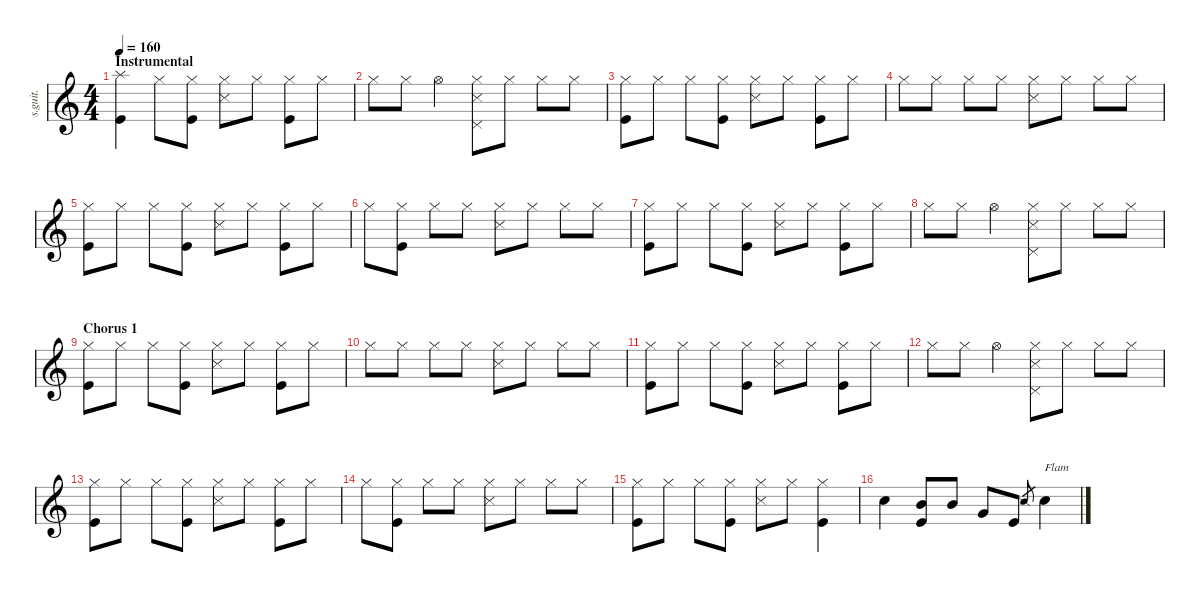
\defaultSystemsLayout 4
\hideDynamics
\bracketExtendMode nobrackets
\track ("John Dolmayan" "s.guit.") {instrument percussion}
\staff {score}
\articulation defaults
\ts (4 4)
\section ("" "Instrumental")
\tempo 160
\clef g2
\ks c
("Splash (hit)" "Kick (hit)").4{lyrics (0 "") lyrics (1 "") lyrics (2 "") lyrics (3 "") lyrics (4 "") dy f} "Hi-Hat (closed)".8{lyrics (0 "") lyrics (1 "") lyrics (2 "") lyrics (3 "") lyrics (4 "")} ("Hi-Hat (closed)" "Kick (hit)").8{lyrics (0 "") lyrics (1 "") lyrics (2 "") lyrics (3 "") lyrics (4 "")} ("Hi-Hat (closed)" "Snare (side stick) 3").8{lyrics (0 "") lyrics (1 "") lyrics (2 "") lyrics (3 "") lyrics (4 "")} "Hi-Hat (closed)".8{lyrics (0 "") lyrics (1 "") lyrics (2 "") lyrics (3 "") lyrics (4 "")} ("Hi-Hat (closed)" "Kick (hit)").8{lyrics (0 "") lyrics (1 "") lyrics (2 "") lyrics (3 "") lyrics (4 "")} "Hi-Hat (closed)".8{lyrics (0 "") lyrics (1 "") lyrics (2 "") lyrics (3 "") lyrics (4 "")} |
"Hi-Hat (closed)".8{lyrics (0 "") lyrics (1 "") lyrics (2 "") lyrics (3 "") lyrics (4 "")} "Hi-Hat (closed)".8{lyrics (0 "") lyrics (1 "") lyrics (2 "") lyrics (3 "") lyrics (4 "")} "Hi-Hat (open)".4{lyrics (0 "") lyrics (1 "") lyrics (2 "") lyrics (3 "") lyrics (4 "")} ("Hi-Hat (closed)" "Pedal Hi-Hat (hit)" "Snare (side stick) 3").8{lyrics (0 "") lyrics (1 "") lyrics (2 "") lyrics (3 "") lyrics (4 "")} "Hi-Hat (closed)".8{lyrics (0 "") lyrics (1 "") lyrics (2 "") lyrics (3 "") lyrics (4 "")} "Hi-Hat (closed)".8{lyrics (0 "") lyrics (1 "") lyrics (2 "") lyrics (3 "") lyrics (4 "")} "Hi-Hat (closed)".8{lyrics (0 "") lyrics (1 "") lyrics (2 "") lyrics (3 "") lyrics (4 "")} |
("Hi-Hat (closed)" "Kick (hit)").8{lyrics (0 "") lyrics (1 "") lyrics (2 "") lyrics (3 "") lyrics (4 "")} "Hi-Hat (closed)".8{lyrics (0 "") lyrics (1 "") lyrics (2 "") lyrics (3 "") lyrics (4 "")} "Hi-Hat (closed)".8{lyrics (0 "") lyrics (1 "") lyrics (2 "") lyrics (3 "") lyrics (4 "")} ("Hi-Hat (closed)" "Kick (hit)").8{lyrics (0 "") lyrics (1 "") lyrics (2 "") lyrics (3 "") lyrics (4 "")} ("Hi-Hat (closed)" "Snare (side stick) 3").8{lyrics (0 "") lyrics (1 "") lyrics (2 "") lyrics (3 "") lyrics (4 "")} "Hi-Hat (closed)".8{lyrics (0 "") lyrics (1 "") lyrics (2 "") lyrics (3 "") lyrics (4 "")} ("Hi-Hat (closed)" "Kick (hit)").8{lyrics (0 "") lyrics (1 "") lyrics (2 "") lyrics (3 "") lyrics (4 "")} "Hi-Hat (closed)".8{lyrics (0 "") lyrics (1 "") lyrics (2 "") lyrics (3 "") lyrics (4 "")} |
"Hi-Hat (closed)".8{lyrics (0 "") lyrics (1 "") lyrics (2 "") lyrics (3 "") lyrics (4 "")} "Hi-Hat (closed)".8{lyrics (0 "") lyrics (1 "") lyrics (2 "") lyrics (3 "") lyrics (4 "")} "Hi-Hat (closed)".8{lyrics (0 "") lyrics (1 "") lyrics (2 "") lyrics (3 "") lyrics (4 "")} "Hi-Hat (closed)".8{lyrics (0 "") lyrics (1 "") lyrics (2 "") lyrics (3 "") lyrics (4 "")} ("Hi-Hat (closed)" "Snare (side stick) 3").8{lyrics (0 "") lyrics (1 "") lyrics (2 "") lyrics (3 "") lyrics (4 "")} "Hi-Hat (closed)".8{lyrics (0 "") lyrics (1 "") lyrics (2 "") lyrics (3 "") lyrics (4 "")} "Hi-Hat (closed)".8{lyrics (0 "") lyrics (1 "") lyrics (2 "") lyrics (3 "") lyrics (4 "")} "Hi-Hat (closed)".8{lyrics (0 "") lyrics (1 "") lyrics (2 "") lyrics (3 "") lyrics (4 "")} |
("Hi-Hat (closed)" "Kick (hit)").8{lyrics (0 "") lyrics (1 "") lyrics (2 "") lyrics (3 "") lyrics (4 "")} "Hi-Hat (closed)".8{lyrics (0 "") lyrics (1 "") lyrics (2 "") lyrics (3 "") lyrics (4 "")} "Hi-Hat (closed)".8{lyrics (0 "") lyrics (1 "") lyrics (2 "") lyrics (3 "") lyrics (4 "")} ("Hi-Hat (closed)" "Kick (hit)").8{lyrics (0 "") lyrics (1 "") lyrics (2 "") lyrics (3 "") lyrics (4 "")} ("Hi-Hat (closed)" "Snare (side stick) 3").8{lyrics (0 "") lyrics (1 "") lyrics (2 "") lyrics (3 "") lyrics (4 "")} "Hi-Hat (closed)".8{lyrics (0 "") lyrics (1 "") lyrics (2 "") lyrics (3 "") lyrics (4 "")} ("Hi-Hat (closed)" "Kick (hit)").8{lyrics (0 "") lyrics (1 "") lyrics (2 "") lyrics (3 "") lyrics (4 "")} "Hi-Hat (closed)".8{lyrics (0 "") lyrics (1 "") lyrics (2 "") lyrics (3 "") lyrics (4 "")} |
"Hi-Hat (closed)".8{lyrics (0 "") lyrics (1 "") lyrics (2 "") lyrics (3 "") lyrics (4 "")} ("Hi-Hat (closed)" "Kick (hit)").8{lyrics (0 "") lyrics (1 "") lyrics (2 "") lyrics (3 "") lyrics (4 "")} "Hi-Hat (closed)".8{lyrics (0 "") lyrics (1 "") lyrics (2 "") lyrics (3 "") lyrics (4 "")} "Hi-Hat (closed)".8{lyrics (0 "") lyrics (1 "") lyrics (2 "") lyrics (3 "") lyrics (4 "")} ("Hi-Hat (closed)" "Snare (side stick) 3").8{lyrics (0 "") lyrics (1 "") lyrics (2 "") lyrics (3 "") lyrics (4 "")} "Hi-Hat (closed)".8{lyrics (0 "") lyrics (1 "") lyrics (2 "") lyrics (3 "") lyrics (4 "")} "Hi-Hat (closed)".8{lyrics (0 "") lyrics (1 "") lyrics (2 "") lyrics (3 "") lyrics (4 "")} "Hi-Hat (closed)".8{lyrics (0 "") lyrics (1 "") lyrics (2 "") lyrics (3 "") lyrics (4 "")} |
("Hi-Hat (closed)" "Kick (hit)").8{lyrics (0 "") lyrics (1 "") lyrics (2 "") lyrics (3 "") lyrics (4 "")} "Hi-Hat (closed)".8{lyrics (0 "") lyrics (1 "") lyrics (2 "") lyrics (3 "") lyrics (4 "")} "Hi-Hat (closed)".8{lyrics (0 "") lyrics (1 "") lyrics (2 "") lyrics (3 "") lyrics (4 "")} ("Hi-Hat (closed)" "Kick (hit)").8{lyrics (0 "") lyrics (1 "") lyrics (2 "") lyrics (3 "") lyrics (4 "")} ("Hi-Hat (closed)" "Snare (side stick) 3").8{lyrics (0 "") lyrics (1 "") lyrics (2 "") lyrics (3 "") lyrics (4 "")} "Hi-Hat (closed)".8{lyrics (0 "") lyrics (1 "") lyrics (2 "") lyrics (3 "") lyrics (4 "")} ("Hi-Hat (closed)" "Kick (hit)").8{lyrics (0 "") lyrics (1 "") lyrics (2 "") lyrics (3 "") lyrics (4 "")} "Hi-Hat (closed)".8{lyrics (0 "") lyrics (1 "") lyrics (2 "") lyrics (3 "") lyrics (4 "")} |
"Hi-Hat (closed)".8{lyrics (0 "") lyrics (1 "") lyrics (2 "") lyrics (3 "") lyrics (4 "")} "Hi-Hat (closed)".8{lyrics (0 "") lyrics (1 "") lyrics (2 "") lyrics (3 "") lyrics (4 "")} "Hi-Hat (open)".4{lyrics (0 "") lyrics (1 "") lyrics (2 "") lyrics (3 "") lyrics (4 "")} ("Hi-Hat (closed)" "Pedal Hi-Hat (hit)" "Snare (side stick) 3").8{lyrics (0 "") lyrics (1 "") lyrics (2 "") lyrics (3 "") lyrics (4 "")} "Hi-Hat (closed)".8{lyrics (0 "") lyrics (1 "") lyrics (2 "") lyrics (3 "") lyrics (4 "")} "Hi-Hat (closed)".8{lyrics (0 "") lyrics (1 "") lyrics (2 "") lyrics (3 "") lyrics (4 "")} "Hi-Hat (closed)".8{lyrics (0 "") lyrics (1 "") lyrics (2 "") lyrics (3 "") lyrics (4 "")} |
\section ("" "Chorus 1")
("Hi-Hat (closed)" "Kick (hit)").8{lyrics (0 "") lyrics (1 "") lyrics (2 "") lyrics (3 "") lyrics (4 "")} "Hi-Hat (closed)".8{lyrics (0 "") lyrics (1 "") lyrics (2 "") lyrics (3 "") lyrics (4 "")} "Hi-Hat (closed)".8{lyrics (0 "") lyrics (1 "") lyrics (2 "") lyrics (3 "") lyrics (4 "")} ("Hi-Hat (closed)" "Kick (hit)").8{lyrics (0 "") lyrics (1 "") lyrics (2 "") lyrics (3 "") lyrics (4 "")} ("Hi-Hat (closed)" "Snare (side stick) 3").8{lyrics (0 "") lyrics (1 "") lyrics (2 "") lyrics (3 "") lyrics (4 "")} "Hi-Hat (closed)".8{lyrics (0 "") lyrics (1 "") lyrics (2 "") lyrics (3 "") lyrics (4 "")} ("Hi-Hat (closed)" "Kick (hit)").8{lyrics (0 "") lyrics (1 "") lyrics (2 "") lyrics (3 "") lyrics (4 "")} "Hi-Hat (closed)".8{lyrics (0 "") lyrics (1 "") lyrics (2 "") lyrics (3 "") lyrics (4 "")} |
"Hi-Hat (closed)".8{lyrics (0 "") lyrics (1 "") lyrics (2 "") lyrics (3 "") lyrics (4 "")} "Hi-Hat (closed)".8{lyrics (0 "") lyrics (1 "") lyrics (2 "") lyrics (3 "") lyrics (4 "")} "Hi-Hat (closed)".8{lyrics (0 "") lyrics (1 "") lyrics (2 "") lyrics (3 "") lyrics (4 "")} "Hi-Hat (closed)".8{lyrics (0 "") lyrics (1 "") lyrics (2 "") lyrics (3 "") lyrics (4 "")} ("Hi-Hat (closed)" "Snare (side stick) 3").8{lyrics (0 "") lyrics (1 "") lyrics (2 "") lyrics (3 "") lyrics (4 "")} "Hi-Hat (closed)".8{lyrics (0 "") lyrics (1 "") lyrics (2 "") lyrics (3 "") lyrics (4 "")} "Hi-Hat (closed)".8{lyrics (0 "") lyrics (1 "") lyrics (2 "") lyrics (3 "") lyrics (4 "")} "Hi-Hat (closed)".8{lyrics (0 "") lyrics (1 "") lyrics (2 "") lyrics (3 "") lyrics (4 "")} |
("Hi-Hat (closed)" "Kick (hit)").8{lyrics (0 "") lyrics (1 "") lyrics (2 "") lyrics (3 "") lyrics (4 "")} "Hi-Hat (closed)".8{lyrics (0 "") lyrics (1 "") lyrics (2 "") lyrics (3 "") lyrics (4 "")} "Hi-Hat (closed)".8{lyrics (0 "") lyrics (1 "") lyrics (2 "") lyrics (3 "") lyrics (4 "")} ("Hi-Hat (closed)" "Kick (hit)").8{lyrics (0 "") lyrics (1 "") lyrics (2 "") lyrics (3 "") lyrics (4 "")} ("Hi-Hat (closed)" "Snare (side stick) 3").8{lyrics (0 "") lyrics (1 "") lyrics (2 "") lyrics (3 "") lyrics (4 "")} "Hi-Hat (closed)".8{lyrics (0 "") lyrics (1 "") lyrics (2 "") lyrics (3 "") lyrics (4 "")} ("Hi-Hat (closed)" "Kick (hit)").8{lyrics (0 "") lyrics (1 "") lyrics (2 "") lyrics (3 "") lyrics (4 "")} "Hi-Hat (closed)".8{lyrics (0 "") lyrics (1 "") lyrics (2 "") lyrics (3 "") lyrics (4 "")} |
"Hi-Hat (closed)".8{lyrics (0 "") lyrics (1 "") lyrics (2 "") lyrics (3 "") lyrics (4 "")} "Hi-Hat (closed)".8{lyrics (0 "") lyrics (1 "") lyrics (2 "") lyrics (3 "") lyrics (4 "")} "Hi-Hat (open)".4{lyrics (0 "") lyrics (1 "") lyrics (2 "") lyrics (3 "") lyrics (4 "")} ("Hi-Hat (closed)" "Pedal Hi-Hat (hit)" "Snare (side stick) 3").8{lyrics (0 "") lyrics (1 "") lyrics (2 "") lyrics (3 "") lyrics (4 "")} "Hi-Hat (closed)".8{lyrics (0 "") lyrics (1 "") lyrics (2 "") lyrics (3 "") lyrics (4 "")} "Hi-Hat (closed)".8{lyrics (0 "") lyrics (1 "") lyrics (2 "") lyrics (3 "") lyrics (4 "")} "Hi-Hat (closed)".8{lyrics (0 "") lyrics (1 "") lyrics (2 "") lyrics (3 "") lyrics (4 "")} |
("Hi-Hat (closed)" "Kick (hit)").8{lyrics (0 "") lyrics (1 "") lyrics (2 "") lyrics (3 "") lyrics (4 "")} "Hi-Hat (closed)".8{lyrics (0 "") lyrics (1 "") lyrics (2 "") lyrics (3 "") lyrics (4 "")} "Hi-Hat (closed)".8{lyrics (0 "") lyrics (1 "") lyrics (2 "") lyrics (3 "") lyrics (4 "")} ("Hi-Hat (closed)" "Kick (hit)").8{lyrics (0 "") lyrics (1 "") lyrics (2 "") lyrics (3 "") lyrics (4 "")} ("Hi-Hat (closed)" "Snare (side stick) 3").8{lyrics (0 "") lyrics (1 "") lyrics (2 "") lyrics (3 "") lyrics (4 "")} "Hi-Hat (closed)".8{lyrics (0 "") lyrics (1 "") lyrics (2 "") lyrics (3 "") lyrics (4 "")} ("Hi-Hat (closed)" "Kick (hit)").8{lyrics (0 "") lyrics (1 "") lyrics (2 "") lyrics (3 "") lyrics (4 "")} "Hi-Hat (closed)".8{lyrics (0 "") lyrics (1 "") lyrics (2 "") lyrics (3 "") lyrics (4 "")} |
"Hi-Hat (closed)".8{lyrics (0 "") lyrics (1 "") lyrics (2 "") lyrics (3 "") lyrics (4 "")} ("Hi-Hat (closed)" "Kick (hit)").8{lyrics (0 "") lyrics (1 "") lyrics (2 "") lyrics (3 "") lyrics (4 "")} "Hi-Hat (closed)".8{lyrics (0 "") lyrics (1 "") lyrics (2 "") lyrics (3 "") lyrics (4 "")} "Hi-Hat (closed)".8{lyrics (0 "") lyrics (1 "") lyrics (2 "") lyrics (3 "") lyrics (4 "")} ("Hi-Hat (closed)" "Snare (side stick) 3").8{lyrics (0 "") lyrics (1 "") lyrics (2 "") lyrics (3 "") lyrics (4 "")} "Hi-Hat (closed)".8{lyrics (0 "") lyrics (1 "") lyrics (2 "") lyrics (3 "") lyrics (4 "")} "Hi-Hat (closed)".8{lyrics (0 "") lyrics (1 "") lyrics (2 "") lyrics (3 "") lyrics (4 "")} "Hi-Hat (closed)".8{lyrics (0 "") lyrics (1 "") lyrics (2 "") lyrics (3 "") lyrics (4 "")} |
("Hi-Hat (closed)" "Kick (hit)").8{lyrics (0 "") lyrics (1 "") lyrics (2 "") lyrics (3 "") lyrics (4 "")} "Hi-Hat (closed)".8{lyrics (0 "") lyrics (1 "") lyrics (2 "") lyrics (3 "") lyrics (4 "")} "Hi-Hat (closed)".8{lyrics (0 "") lyrics (1 "") lyrics (2 "") lyrics (3 "") lyrics (4 "")} ("Hi-Hat (closed)" "Kick (hit)").8{lyrics (0 "") lyrics (1 "") lyrics (2 "") lyrics (3 "") lyrics (4 "")} ("Hi-Hat (closed)" "Snare (side stick) 3").8{lyrics (0 "") lyrics (1 "") lyrics (2 "") lyrics (3 "") lyrics (4 "")} "Hi-Hat (closed)".8{lyrics (0 "") lyrics (1 "") lyrics (2 "") lyrics (3 "") lyrics (4 "")} ("Hi-Hat (closed)" "Kick (hit)").4{lyrics (0 "") lyrics (1 "") lyrics (2 "") lyrics (3 "") lyrics (4 "")} |
"Snare (hit) 2".4{lyrics (0 "") lyrics (1 "") lyrics (2 "") lyrics (3 "") lyrics (4 "")} ("Kick (hit)" "Mid Tom (hit)").8{lyrics (0 "") lyrics (1 "") lyrics (2 "") lyrics (3 "") lyrics (4 "")} "Mid Tom (hit)".8{lyrics (0 "") lyrics (1 "") lyrics (2 "") lyrics (3 "") lyrics (4 "")} "Very Low Tom (hit)".8{lyrics (0 "") lyrics (1 "") lyrics (2 "") lyrics (3 "") lyrics (4 "")} "Kick (hit)".8{lyrics (0 "") lyrics (1 "") lyrics (2 "") lyrics (3 "") lyrics (4 "")} "Snare (side stick) 2".8{lyrics (0 "") lyrics (1 "") lyrics (2 "") lyrics (3 "") lyrics (4 "") gr dy mp} "Snare (hit) 2".4{txt "Flam" lyrics (0 "") lyrics (1 "") lyrics (2 "") lyrics (3 "") lyrics (4 "") dy f}
